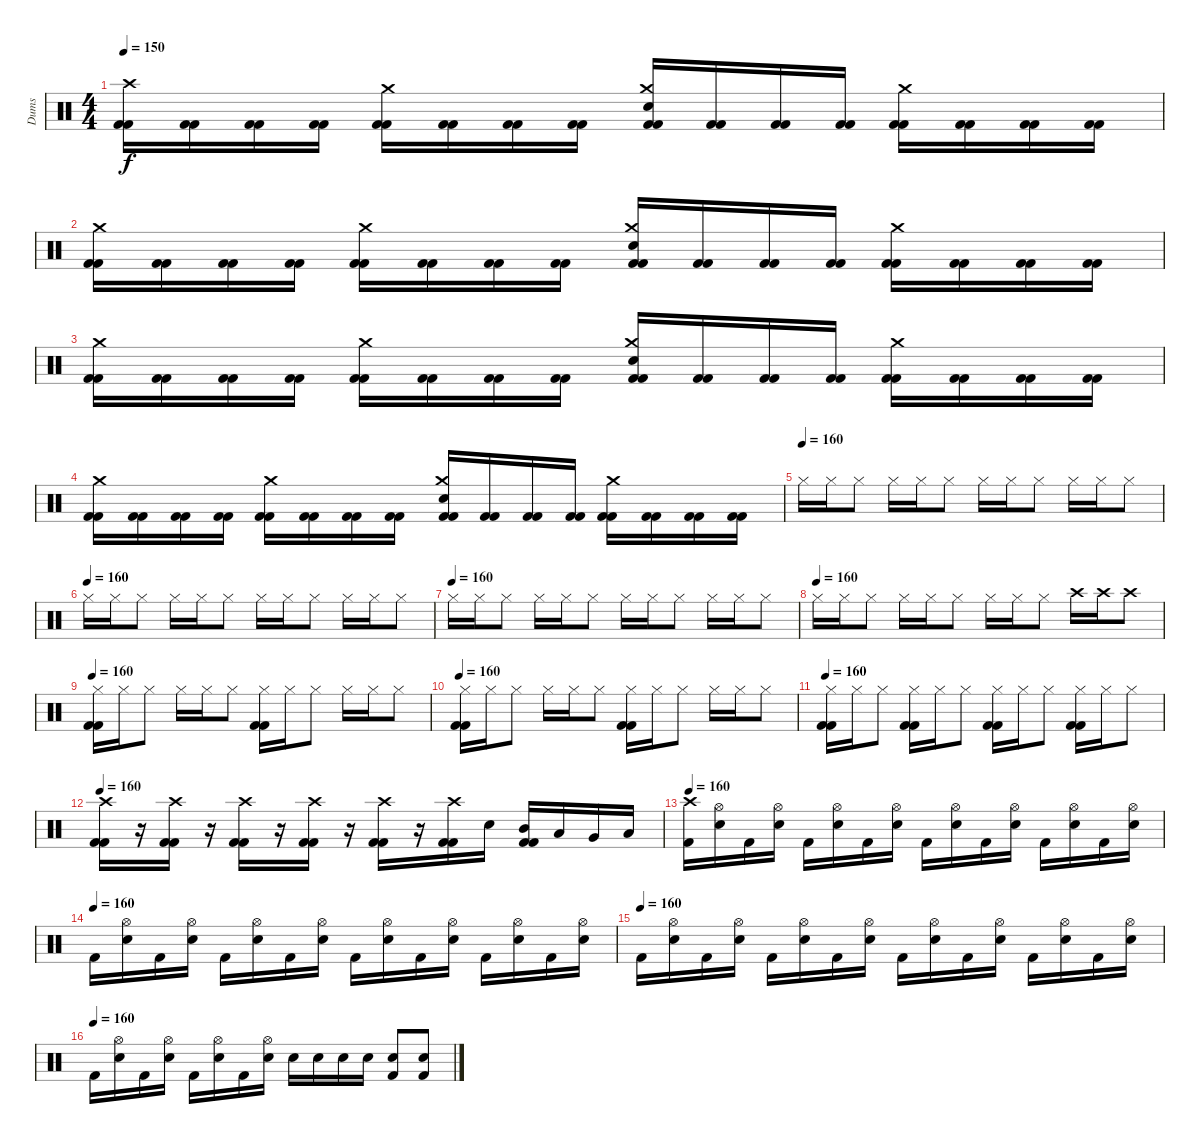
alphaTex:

\track ("Dums" "Dums") {instrument percussion}
\staff {score}
\articulation defaults
\ts (4 4)
\tempo 150
\clef neutral
\ks c
("Crash high (hit)" "Kick (hit) 2" "Kick (hit) 2").16{dy f} ("Kick (hit) 2" "Kick (hit) 2").16 ("Kick (hit) 2" "Kick (hit) 2").16 ("Kick (hit) 2" "Kick (hit) 2").16 ("Crash medium (hit)" "Kick (hit) 2" "Kick (hit) 2").16 ("Kick (hit) 2" "Kick (hit) 2").16 ("Kick (hit) 2" "Kick (hit) 2").16 ("Kick (hit) 2" "Kick (hit) 2").16 ("Crash medium (hit)" "Electric Snare (hit)" "Kick (hit) 2" "Kick (hit) 2").16 ("Kick (hit) 2" "Kick (hit) 2").16 ("Kick (hit) 2" "Kick (hit) 2").16 ("Kick (hit) 2" "Kick (hit) 2").16 ("Crash medium (hit)" "Kick (hit) 2" "Kick (hit) 2").16 ("Kick (hit) 2" "Kick (hit) 2").16 ("Kick (hit) 2" "Kick (hit) 2").16 ("Kick (hit) 2" "Kick (hit) 2").16 |
("Crash medium (hit)" "Kick (hit) 2" "Kick (hit) 2").16 ("Kick (hit) 2" "Kick (hit) 2").16 ("Kick (hit) 2" "Kick (hit) 2").16 ("Kick (hit) 2" "Kick (hit) 2").16 ("Crash medium (hit)" "Kick (hit) 2" "Kick (hit) 2").16 ("Kick (hit) 2" "Kick (hit) 2").16 ("Kick (hit) 2" "Kick (hit) 2").16 ("Kick (hit) 2" "Kick (hit) 2").16 ("Crash medium (hit)" "Electric Snare (hit)" "Kick (hit) 2" "Kick (hit) 2").16 ("Kick (hit) 2" "Kick (hit) 2").16 ("Kick (hit) 2" "Kick (hit) 2").16 ("Kick (hit) 2" "Kick (hit) 2").16 ("Crash medium (hit)" "Kick (hit) 2" "Kick (hit) 2").16 ("Kick (hit) 2" "Kick (hit) 2").16 ("Kick (hit) 2" "Kick (hit) 2").16 ("Kick (hit) 2" "Kick (hit) 2").16 |
("Crash medium (hit)" "Kick (hit) 2" "Kick (hit) 2").16 ("Kick (hit) 2" "Kick (hit) 2").16 ("Kick (hit) 2" "Kick (hit) 2").16 ("Kick (hit) 2" "Kick (hit) 2").16 ("Crash medium (hit)" "Kick (hit) 2" "Kick (hit) 2").16 ("Kick (hit) 2" "Kick (hit) 2").16 ("Kick (hit) 2" "Kick (hit) 2").16 ("Kick (hit) 2" "Kick (hit) 2").16 ("Crash medium (hit)" "Electric Snare (hit)" "Kick (hit) 2" "Kick (hit) 2").16 ("Kick (hit) 2" "Kick (hit) 2").16 ("Kick (hit) 2" "Kick (hit) 2").16 ("Kick (hit) 2" "Kick (hit) 2").16 ("Crash medium (hit)" "Kick (hit) 2" "Kick (hit) 2").16 ("Kick (hit) 2" "Kick (hit) 2").16 ("Kick (hit) 2" "Kick (hit) 2").16 ("Kick (hit) 2" "Kick (hit) 2").16 |
("Crash medium (hit)" "Kick (hit) 2" "Kick (hit) 2").16 ("Kick (hit) 2" "Kick (hit) 2").16 ("Kick (hit) 2" "Kick (hit) 2").16 ("Kick (hit) 2" "Kick (hit) 2").16 ("Crash medium (hit)" "Kick (hit) 2" "Kick (hit) 2").16 ("Kick (hit) 2" "Kick (hit) 2").16 ("Kick (hit) 2" "Kick (hit) 2").16 ("Kick (hit) 2" "Kick (hit) 2").16 ("Crash medium (hit)" "Electric Snare (hit)" "Kick (hit) 2" "Kick (hit) 2").16 ("Kick (hit) 2" "Kick (hit) 2").16 ("Kick (hit) 2" "Kick (hit) 2").16 ("Kick (hit) 2" "Kick (hit) 2").16 ("Crash medium (hit)" "Kick (hit) 2" "Kick (hit) 2").16 ("Kick (hit) 2" "Kick (hit) 2").16 ("Kick (hit) 2" "Kick (hit) 2").16 ("Kick (hit) 2" "Kick (hit) 2").16 |
\tempo (160)
"Hi-Hat (closed)".16{volume 10} "Hi-Hat (closed)".16 "Hi-Hat (closed)".8 "Hi-Hat (closed)".16 "Hi-Hat (closed)".16 "Hi-Hat (closed)".8 "Hi-Hat (closed)".16 "Hi-Hat (closed)".16 "Hi-Hat (closed)".8 "Hi-Hat (closed)".16 "Hi-Hat (closed)".16 "Hi-Hat (closed)".8 |
\tempo (160)
"Hi-Hat (closed)".16{volume 10} "Hi-Hat (closed)".16 "Hi-Hat (closed)".8 "Hi-Hat (closed)".16 "Hi-Hat (closed)".16 "Hi-Hat (closed)".8 "Hi-Hat (closed)".16 "Hi-Hat (closed)".16 "Hi-Hat (closed)".8 "Hi-Hat (closed)".16 "Hi-Hat (closed)".16 "Hi-Hat (closed)".8 |
\tempo (160)
"Hi-Hat (closed)".16{volume 10} "Hi-Hat (closed)".16 "Hi-Hat (closed)".8 "Hi-Hat (closed)".16 "Hi-Hat (closed)".16 "Hi-Hat (closed)".8 "Hi-Hat (closed)".16 "Hi-Hat (closed)".16 "Hi-Hat (closed)".8 "Hi-Hat (closed)".16 "Hi-Hat (closed)".16 "Hi-Hat (closed)".8 |
\tempo (160)
"Hi-Hat (closed)".16{volume 10} "Hi-Hat (closed)".16 "Hi-Hat (closed)".8 "Hi-Hat (closed)".16 "Hi-Hat (closed)".16 "Hi-Hat (closed)".8 "Hi-Hat (closed)".16 "Hi-Hat (closed)".16 "Hi-Hat (closed)".8 "Crash high (hit)".16 "Crash high (hit)".16 "Crash high (hit)".8 |
\tempo 160
("Hi-Hat (closed)" "Kick (hit) 2" "Kick (hit) 2").16{volume 16} "Hi-Hat (closed)".16 "Hi-Hat (closed)".8 "Hi-Hat (closed)".16 "Hi-Hat (closed)".16 "Hi-Hat (closed)".8 ("Hi-Hat (closed)" "Kick (hit) 2" "Kick (hit) 2").16 "Hi-Hat (closed)".16 "Hi-Hat (closed)".8 "Hi-Hat (closed)".16 "Hi-Hat (closed)".16 "Hi-Hat (closed)".8 |
\tempo 160
("Hi-Hat (closed)" "Kick (hit) 2" "Kick (hit) 2").16 "Hi-Hat (closed)".16 "Hi-Hat (closed)".8 "Hi-Hat (closed)".16 "Hi-Hat (closed)".16 "Hi-Hat (closed)".8 ("Hi-Hat (closed)" "Kick (hit) 2" "Kick (hit) 2").16 "Hi-Hat (closed)".16 "Hi-Hat (closed)".8 "Hi-Hat (closed)".16 "Hi-Hat (closed)".16 "Hi-Hat (closed)".8 |
\tempo 160
("Hi-Hat (closed)" "Kick (hit) 2" "Kick (hit) 2").16 "Hi-Hat (closed)".16 "Hi-Hat (closed)".8 ("Hi-Hat (closed)" "Kick (hit) 2" "Kick (hit) 2").16 "Hi-Hat (closed)".16 "Hi-Hat (closed)".8 ("Hi-Hat (closed)" "Kick (hit) 2" "Kick (hit) 2").16 "Hi-Hat (closed)".16 "Hi-Hat (closed)".8 ("Hi-Hat (closed)" "Kick (hit) 2" "Kick (hit) 2").16 "Hi-Hat (closed)".16 "Hi-Hat (closed)".8 |
\tempo 160
("Crash high (hit)" "Kick (hit) 2" "Kick (hit) 2").16 r.16 ("Crash high (hit)" "Kick (hit) 2" "Kick (hit) 2").16 r.16 ("Crash high (hit)" "Kick (hit) 2" "Kick (hit) 2").16 r.16 ("Crash high (hit)" "Kick (hit) 2" "Kick (hit) 2").16 r.16 ("Crash high (hit)" "Kick (hit) 2" "Kick (hit) 2").16 r.16 ("Crash high (hit)" "Kick (hit) 2" "Kick (hit) 2").16 "Electric Snare (hit)".16 ("Mid Tom (hit)" "Kick (hit) 2" "Kick (hit) 2").16 "Low Tom (hit)".16 "Very Low Tom (hit)".16 "Low Floor Tom (hit)".16 |
\tempo 160
("Crash high (hit)" "Kick (hit) 2").16 ("Hi-Hat (open)" "Electric Snare (hit)").16 "Kick (hit) 2".16 ("Hi-Hat (open)" "Electric Snare (hit)").16 "Kick (hit) 2".16 ("Hi-Hat (open)" "Electric Snare (hit)").16 "Kick (hit) 2".16 ("Hi-Hat (open)" "Electric Snare (hit)").16 "Kick (hit) 2".16 ("Hi-Hat (open)" "Electric Snare (hit)").16 "Kick (hit) 2".16 ("Hi-Hat (open)" "Electric Snare (hit)").16 "Kick (hit) 2".16 ("Hi-Hat (open)" "Electric Snare (hit)").16 "Kick (hit) 2".16 ("Hi-Hat (open)" "Electric Snare (hit)").16 |
\tempo (160)
"Kick (hit) 2".16 ("Hi-Hat (open)" "Electric Snare (hit)").16 "Kick (hit) 2".16 ("Hi-Hat (open)" "Electric Snare (hit)").16 "Kick (hit) 2".16 ("Hi-Hat (open)" "Electric Snare (hit)").16 "Kick (hit) 2".16 ("Hi-Hat (open)" "Electric Snare (hit)").16 "Kick (hit) 2".16 ("Hi-Hat (open)" "Electric Snare (hit)").16 "Kick (hit) 2".16 ("Hi-Hat (open)" "Electric Snare (hit)").16 "Kick (hit) 2".16 ("Hi-Hat (open)" "Electric Snare (hit)").16 "Kick (hit) 2".16 ("Hi-Hat (open)" "Electric Snare (hit)").16 |
\tempo (160)
"Kick (hit) 2".16 ("Hi-Hat (open)" "Electric Snare (hit)").16 "Kick (hit) 2".16 ("Hi-Hat (open)" "Electric Snare (hit)").16 "Kick (hit) 2".16 ("Hi-Hat (open)" "Electric Snare (hit)").16 "Kick (hit) 2".16 ("Hi-Hat (open)" "Electric Snare (hit)").16 "Kick (hit) 2".16 ("Hi-Hat (open)" "Electric Snare (hit)").16 "Kick (hit) 2".16 ("Hi-Hat (open)" "Electric Snare (hit)").16 "Kick (hit) 2".16 ("Hi-Hat (open)" "Electric Snare (hit)").16 "Kick (hit) 2".16 ("Hi-Hat (open)" "Electric Snare (hit)").16 |
\tempo (160)
"Kick (hit) 2".16 ("Hi-Hat (open)" "Electric Snare (hit)").16 "Kick (hit) 2".16 ("Hi-Hat (open)" "Electric Snare (hit)").16 "Kick (hit) 2".16 ("Hi-Hat (open)" "Electric Snare (hit)").16 "Kick (hit) 2".16 ("Hi-Hat (open)" "Electric Snare (hit)").16 "Electric Snare (hit)".16 "Electric Snare (hit)".16 "Electric Snare (hit)".16 "Electric Snare (hit)".16 ("Electric Snare (hit)" "Kick (hit) 2").8 ("Electric Snare (hit)" "Kick (hit) 2").8
